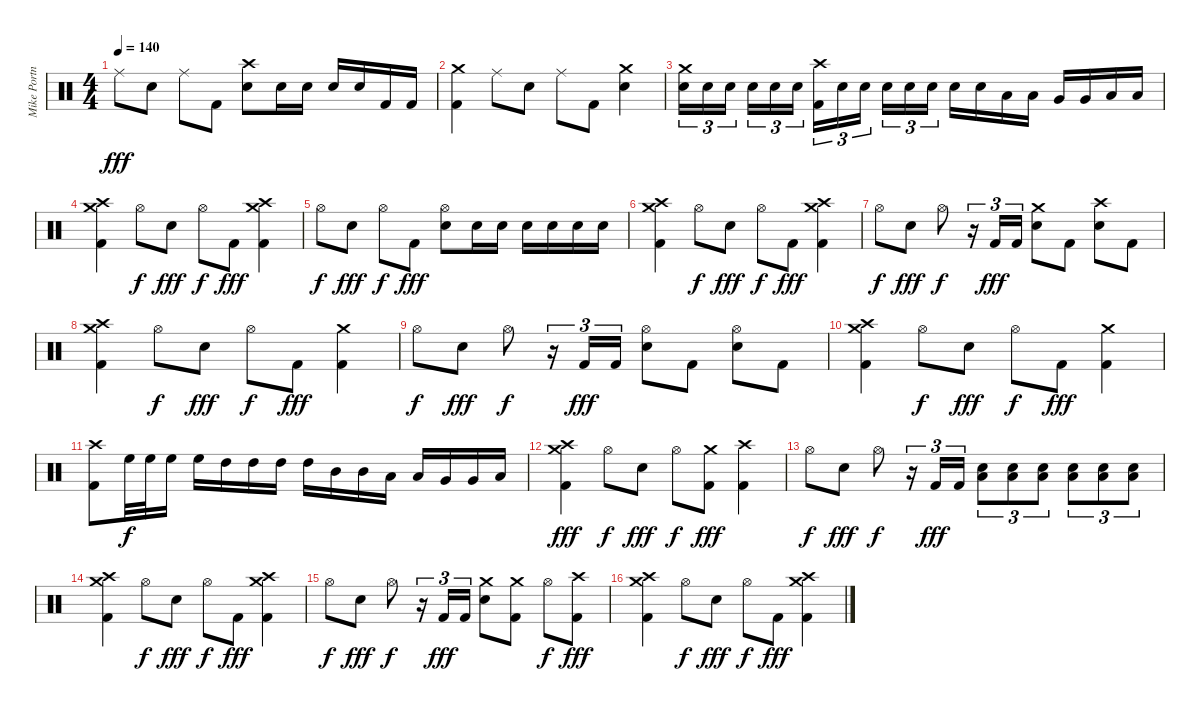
\track ("Mike Portnoy" "Mike Portn") {instrument percussion}
\staff {score}
\articulation defaults
\ts (4 4)
\tempo 140
\clef neutral
\ks c "Ride (middle)".8{dy fff} "Electric Snare (hit)".8 "Ride (middle)".8 "Kick (hit) 2".8
("Crash high (hit)" "Electric Snare (hit)").8 "Electric Snare (hit)".16 "Electric Snare (hit)".16 "Electric Snare (hit)".16 "Electric Snare (hit)".16 "Kick (hit) 2".16 "Kick (hit) 2".16 |
("Crash medium (hit)" "Kick (hit) 2").4 "Ride (middle)".8 "Electric Snare (hit)".8 "Ride (middle)".8 "Kick (hit) 2".8 ("Crash medium (hit)" "Electric Snare (hit)").4 |
("Crash medium (hit)" "Electric Snare (hit)").16{tu (3 2)} "Electric Snare (hit)".16{tu (3 2)} "Electric Snare (hit)".16{tu (3 2) beam splitsecondary} "Electric Snare (hit)".16{tu (3 2)} "Electric Snare (hit)".16{tu (3 2)} "Electric Snare (hit)".16{tu (3 2)} ("Crash high (hit)" "Kick (hit) 2").16{tu (3 2)} "Electric Snare (hit)".16{tu (3 2)} "Electric Snare (hit)".16{tu (3 2) beam splitsecondary} "Electric Snare (hit)".16{tu (3 2)} "Electric Snare (hit)".16{tu (3 2)} "Electric Snare (hit)".16{tu (3 2)} "Electric Snare (hit)".16 "Electric Snare (hit)".16 "Low Tom (hit)".16 "Low Tom (hit)".16 "Very Low Tom (hit)".16 "Very Low Tom (hit)".16 "Low Floor Tom (hit)".16 "Low Floor Tom (hit)".16 |
("Crash high (hit)" "Crash medium (hit)" "Kick (hit) 2").4 "Hi-Hat (open)".8{dy f} "Electric Snare (hit)".8{dy fff} "Hi-Hat (open)".8{dy f} "Kick (hit) 2".8{dy fff} ("Crash high (hit)" "Crash medium (hit)" "Kick (hit) 2").4 |
"Hi-Hat (open)".8{dy f} "Electric Snare (hit)".8{dy fff} "Hi-Hat (open)".8{dy f} "Kick (hit) 2".8{dy fff} ("Hi-Hat (open)" "Electric Snare (hit)").8 "Electric Snare (hit)".16 "Electric Snare (hit)".16 "Electric Snare (hit)".16 "Electric Snare (hit)".16 "Electric Snare (hit)".16 "Electric Snare (hit)".16 |
("Crash high (hit)" "Crash medium (hit)" "Kick (hit) 2").4 "Hi-Hat (open)".8{dy f} "Electric Snare (hit)".8{dy fff} "Hi-Hat (open)".8{dy f} "Kick (hit) 2".8{dy fff} ("Crash high (hit)" "Crash medium (hit)" "Kick (hit) 2").4 |
"Hi-Hat (open)".8{dy f} "Electric Snare (hit)".8{dy fff} "Hi-Hat (open)".8{dy f} r.16{tu (3 2)} "Kick (hit) 2".16{tu (3 2) dy fff} "Kick (hit) 2".16{tu (3 2)} ("Crash medium (hit)" "Electric Snare (hit)").8 "Kick (hit) 2".8 ("Crash high (hit)" "Electric Snare (hit)").8 "Kick (hit) 2".8 |
("Crash high (hit)" "Crash medium (hit)" "Kick (hit) 2").4 "Hi-Hat (open)".8{dy f} "Electric Snare (hit)".8{dy fff} "Hi-Hat (open)".8{dy f} "Kick (hit) 2".8{dy fff} ("Crash medium (hit)" "Kick (hit) 2").4 |
"Hi-Hat (open)".8{dy f} "Electric Snare (hit)".8{dy fff} "Hi-Hat (open)".8{dy f} r.16{tu (3 2)} "Kick (hit) 2".16{tu (3 2) dy fff} "Kick (hit) 2".16{tu (3 2)} ("Hi-Hat (open)" "Electric Snare (hit)").8 "Kick (hit) 2".8 ("Hi-Hat (open)" "Electric Snare (hit)").8 "Kick (hit) 2".8 |
("Crash high (hit)" "Crash medium (hit)" "Kick (hit) 2").4 "Hi-Hat (open)".8{dy f} "Electric Snare (hit)".8{dy fff} "Hi-Hat (open)".8{dy f} "Kick (hit) 2".8{dy fff} ("Crash medium (hit)" "Kick (hit) 2").4 |
("Crash high (hit)" "Kick (hit) 2").8 "High Floor Tom (hit)".32{dy f} "High Floor Tom (hit)".32 "High Floor Tom (hit)".16 "High Floor Tom (hit)".16 "High Tom (hit)".16 "High Tom (hit)".16 "High Tom (hit)".16 "High Tom (hit)".16 "Mid Tom (hit)".16 "Mid Tom (hit)".16 "Low Tom (hit)".16 "Low Tom (hit)".16 "Very Low Tom (hit)".16 "Very Low Tom (hit)".16 "Low Floor Tom (hit)".16 |
("Crash high (hit)" "Crash medium (hit)" "Kick (hit) 2").4{dy fff} "Hi-Hat (open)".8{dy f} "Electric Snare (hit)".8{dy fff} "Hi-Hat (open)".8{dy f} ("Crash medium (hit)" "Kick (hit) 2").8{dy fff} ("Crash high (hit)" "Kick (hit) 2").4 |
"Hi-Hat (open)".8{dy f} "Electric Snare (hit)".8{dy fff} "Hi-Hat (open)".8{dy f} r.16{tu (3 2)} "Kick (hit) 2".16{tu (3 2) dy fff} "Kick (hit) 2".16{tu (3 2)} ("Low Tom (hit)" "Electric Snare (hit)").8{tu (3 2)} ("Low Tom (hit)" "Electric Snare (hit)").8{tu (3 2)} ("Low Tom (hit)" "Electric Snare (hit)").8{tu (3 2)} ("Low Tom (hit)" "Electric Snare (hit)").8{tu (3 2)} ("Low Tom (hit)" "Electric Snare (hit)").8{tu (3 2)} ("Low Tom (hit)" "Electric Snare (hit)").8{tu (3 2)} |
("Crash high (hit)" "Crash medium (hit)" "Kick (hit) 2").4 "Hi-Hat (open)".8{dy f} "Electric Snare (hit)".8{dy fff} "Hi-Hat (open)".8{dy f} "Kick (hit) 2".8{dy fff} ("Crash high (hit)" "Crash medium (hit)" "Kick (hit) 2").4 |
"Hi-Hat (open)".8{dy f} "Electric Snare (hit)".8{dy fff} "Hi-Hat (open)".8{dy f} r.16{tu (3 2)} "Kick (hit) 2".16{tu (3 2) dy fff} "Kick (hit) 2".16{tu (3 2)} ("Crash medium (hit)" "Electric Snare (hit)").8 ("Crash medium (hit)" "Kick (hit) 2").8 "Hi-Hat (open)".8{dy f} ("Crash high (hit)" "Kick (hit) 2").8{dy fff} |
("Crash high (hit)" "Crash medium (hit)" "Kick (hit) 2").4 "Hi-Hat (open)".8{dy f} "Electric Snare (hit)".8{dy fff} "Hi-Hat (open)".8{dy f} "Kick (hit) 2".8{dy fff} ("Crash high (hit)" "Crash medium (hit)" "Kick (hit) 2").4
